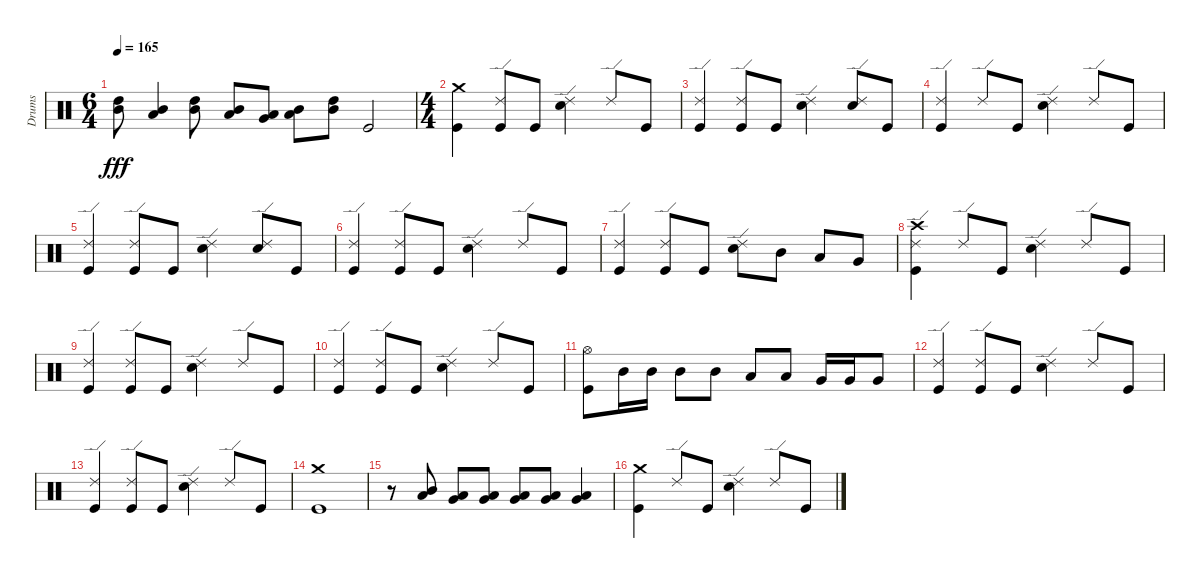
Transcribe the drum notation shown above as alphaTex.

\track ("Drums" "Drums") {instrument percussion}
\staff {score}
\articulation defaults
\ts (6 4)
\tempo 165
\clef neutral
\ks c
("High Tom (hit)" "Mid Tom (hit)").8{dy fff} ("Mid Tom (hit)" "Low Tom (hit)").4 ("High Tom (hit)" "Mid Tom (hit)").8 ("Mid Tom (hit)" "Low Tom (hit)").8 ("Low Tom (hit)" "Very Low Tom (hit)").8 ("Mid Tom (hit)" "Low Tom (hit)").8 ("High Tom (hit)" "Mid Tom (hit)").8 "Kick (hit)".2 |
\ts (4 4)
("Crash medium (hit)" "Kick (hit)").4 ("Ride (edge) 2" "Kick (hit)").8 "Kick (hit)".8 ("Ride (edge) 2" "Snare (hit) 2").4 "Ride (edge) 2".8 "Kick (hit)".8 |
("Ride (edge) 2" "Kick (hit)").4 ("Ride (edge) 2" "Kick (hit)").8 "Kick (hit)".8 ("Ride (edge) 2" "Snare (hit) 2").4 ("Ride (edge) 2" "Snare (hit) 2").8 "Kick (hit)".8 |
("Ride (edge) 2" "Kick (hit)").4 "Ride (edge) 2".8 "Kick (hit)".8 ("Ride (edge) 2" "Snare (hit) 2").4 "Ride (edge) 2".8 "Kick (hit)".8 |
("Ride (edge) 2" "Kick (hit)").4 ("Ride (edge) 2" "Kick (hit)").8 "Kick (hit)".8 ("Ride (edge) 2" "Snare (hit) 2").4 ("Ride (edge) 2" "Snare (hit) 2").8 "Kick (hit)".8 |
("Ride (edge) 2" "Kick (hit)").4 ("Ride (edge) 2" "Kick (hit)").8 "Kick (hit)".8 ("Ride (edge) 2" "Snare (hit) 2").4 "Ride (edge) 2".8 "Kick (hit)".8 |
("Ride (edge) 2" "Kick (hit)").4 ("Ride (edge) 2" "Kick (hit)").8 "Kick (hit)".8 ("Ride (edge) 2" "Snare (hit) 2").8 "Mid Tom (hit)".8 "Low Tom (hit)".8 "Very Low Tom (hit)".8 |
("Ride (edge) 2" "Crash high (hit)" "Kick (hit)").4 "Ride (edge) 2".8 "Kick (hit)".8 ("Ride (edge) 2" "Snare (hit) 2").4 "Ride (edge) 2".8 "Kick (hit)".8 |
("Ride (edge) 2" "Kick (hit)").4 ("Ride (edge) 2" "Kick (hit)").8 "Kick (hit)".8 ("Ride (edge) 2" "Snare (hit) 2").4 "Ride (edge) 2".8 "Kick (hit)".8 |
("Ride (edge) 2" "Kick (hit)").4 ("Ride (edge) 2" "Kick (hit)").8 "Kick (hit)".8 ("Ride (edge) 2" "Snare (hit) 2").4 "Ride (edge) 2".8 "Kick (hit)".8 |
("Hi-Hat (open)" "Kick (hit)").8 "Mid Tom (hit)".16 "Mid Tom (hit)".16 "Mid Tom (hit)".8 "Mid Tom (hit)".8 "Low Tom (hit)".8 "Low Tom (hit)".8 "Very Low Tom (hit)".16 "Very Low Tom (hit)".16 "Very Low Tom (hit)".8 |
("Ride (edge) 2" "Kick (hit)").4 ("Ride (edge) 2" "Kick (hit)").8 "Kick (hit)".8 ("Ride (edge) 2" "Snare (hit) 2").4 "Ride (edge) 2".8 "Kick (hit)".8 |
("Ride (edge) 2" "Kick (hit)").4 ("Ride (edge) 2" "Kick (hit)").8 "Kick (hit)".8 ("Ride (edge) 2" "Snare (hit) 2").4 "Ride (edge) 2".8 "Kick (hit)".8 |
("Crash medium (hit)" "Kick (hit)").1 |
r.8 ("Mid Tom (hit)" "Low Tom (hit)").8 ("Low Tom (hit)" "Very Low Tom (hit)").8 ("Low Tom (hit)" "Very Low Tom (hit)").8 ("Low Tom (hit)" "Very Low Tom (hit)").8 ("Very Low Tom (hit)" "Low Floor Tom (hit)").8 ("Very Low Tom (hit)" "Low Floor Tom (hit)").4 |
("Crash medium (hit)" "Kick (hit)").4 "Ride (edge) 2".8 "Kick (hit)".8 ("Ride (edge) 2" "Snare (hit) 2").4 "Ride (edge) 2".8 "Kick (hit)".8
